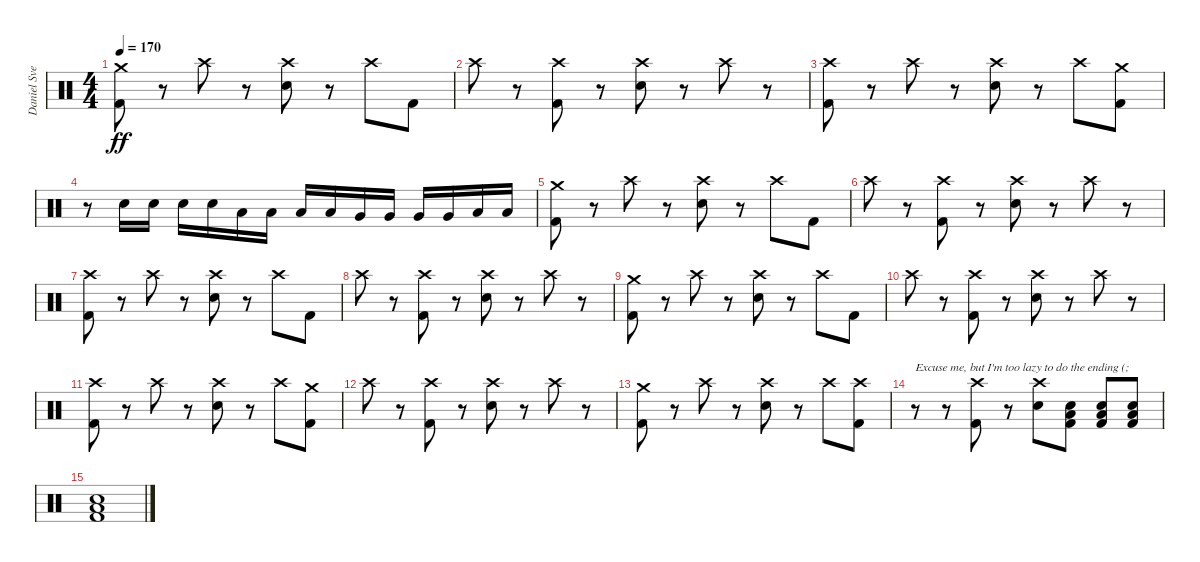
\track ("Daniel Svensson" "Daniel Sve") {instrument percussion}
\staff {score}
\articulation defaults
\ts (4 4)
\tempo 170
\clef neutral
\ks c
("Crash medium (hit)" "Kick (hit) 2").8{dy ff} r.8 "Crash high (hit)".8 r.8 ("Crash high (hit)" "Electric Snare (hit)").8 r.8 "Crash high (hit)".8 "Kick (hit) 2".8 |
"Crash high (hit)".8 r.8 ("Crash high (hit)" "Kick (hit) 2").8 r.8 ("Crash high (hit)" "Electric Snare (hit)").8 r.8 "Crash high (hit)".8 r.8 |
("Crash high (hit)" "Kick (hit) 2").8 r.8 "Crash high (hit)".8 r.8 ("Crash high (hit)" "Electric Snare (hit)").8 r.8 "Crash high (hit)".8 ("Crash medium (hit)" "Kick (hit) 2").8 |
r.8 "Electric Snare (hit)".16 "Electric Snare (hit)".16 "Electric Snare (hit)".16 "Electric Snare (hit)".16 "Low Tom (hit)".16 "Low Tom (hit)".16 "Low Tom (hit)".16 "Low Tom (hit)".16 "Very Low Tom (hit)".16 "Very Low Tom (hit)".16 "Very Low Tom (hit)".16 "Very Low Tom (hit)".16 "Low Floor Tom (hit)".16 "Low Floor Tom (hit)".16 |
("Crash medium (hit)" "Kick (hit) 2").8 r.8 "Crash high (hit)".8 r.8 ("Crash high (hit)" "Electric Snare (hit)").8 r.8 "Crash high (hit)".8 "Kick (hit) 2".8 |
"Crash high (hit)".8 r.8 ("Crash high (hit)" "Kick (hit) 2").8 r.8 ("Crash high (hit)" "Electric Snare (hit)").8 r.8 "Crash high (hit)".8 r.8 |
("Crash high (hit)" "Kick (hit) 2").8 r.8 "Crash high (hit)".8 r.8 ("Crash high (hit)" "Electric Snare (hit)").8 r.8 "Crash high (hit)".8 "Kick (hit) 2".8 |
"Crash high (hit)".8 r.8 ("Crash high (hit)" "Kick (hit) 2").8 r.8 ("Crash high (hit)" "Electric Snare (hit)").8 r.8 "Crash high (hit)".8 r.8 |
("Crash medium (hit)" "Kick (hit) 2").8 r.8 "Crash high (hit)".8 r.8 ("Crash high (hit)" "Electric Snare (hit)").8 r.8 "Crash high (hit)".8 "Kick (hit) 2".8 |
"Crash high (hit)".8 r.8 ("Crash high (hit)" "Kick (hit) 2").8 r.8 ("Crash high (hit)" "Electric Snare (hit)").8 r.8 "Crash high (hit)".8 r.8 |
("Crash high (hit)" "Kick (hit) 2").8 r.8 "Crash high (hit)".8 r.8 ("Crash high (hit)" "Electric Snare (hit)").8 r.8 "Crash high (hit)".8 ("Crash medium (hit)" "Kick (hit) 2").8 |
"Crash high (hit)".8 r.8 ("Crash high (hit)" "Kick (hit) 2").8 r.8 ("Crash high (hit)" "Electric Snare (hit)").8 r.8 "Crash high (hit)".8 r.8 |
("Crash medium (hit)" "Kick (hit) 2").8 r.8 "Crash high (hit)".8 r.8 ("Crash high (hit)" "Electric Snare (hit)").8 r.8 "Crash high (hit)".8 ("Crash high (hit)" "Kick (hit) 2").8 |
r.8{txt "Excuse me, but I'm too lazy to do the ending (;"} r.8 ("Crash high (hit)" "Kick (hit) 2").8 r.8 ("Crash high (hit)" "Electric Snare (hit)").8 ("Low Floor Tom (hit)" "Electric Snare (hit)" "Kick (hit) 2").8 ("Low Floor Tom (hit)" "Electric Snare (hit)" "Kick (hit) 2").8 ("Low Floor Tom (hit)" "Electric Snare (hit)" "Kick (hit) 2").8 |
("Low Floor Tom (hit)" "Electric Snare (hit)" "Kick (hit) 2").1
